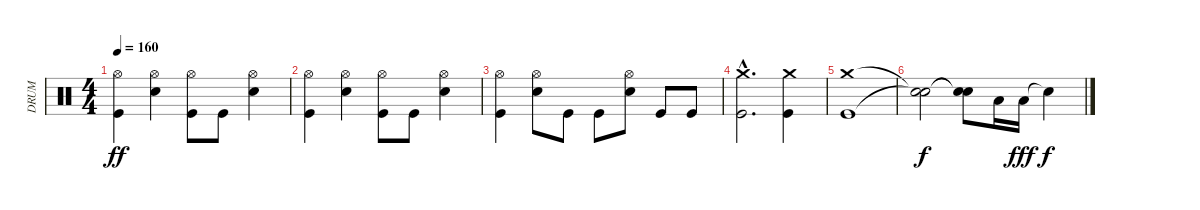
\track ("DRUM" "DRUM") {instrument percussion}
\staff {score}
\articulation defaults
\ts (4 4)
\tempo 160
\clef neutral
\ks c
("Hi-Hat (open)" "Kick (hit)").4{dy ff} ("Hi-Hat (open)" "Snare (hit) 2").4 ("Hi-Hat (open)" "Kick (hit)").8 "Kick (hit)".8 ("Hi-Hat (open)" "Snare (hit) 2").4 |
("Hi-Hat (open)" "Kick (hit)").4 ("Hi-Hat (open)" "Snare (hit) 2").4 ("Hi-Hat (open)" "Kick (hit)").8 "Kick (hit)".8 ("Hi-Hat (open)" "Snare (hit) 2").4 |
("Hi-Hat (open)" "Kick (hit)").4 ("Hi-Hat (open)" "Snare (hit) 2").8 "Kick (hit)".8 "Kick (hit)".8 ("Hi-Hat (open)" "Snare (hit) 2").8 "Kick (hit)".8 "Kick (hit)".8 |
("Crash medium (hit)"{hac} "Kick (hit)"{hac}).2{d} ("Crash medium (hit)" "Kick (hit)").4 |
("Crash medium (hit)" "Kick (hit)").1 |
("Snare (hit)"{t} "Snare (hit)"{t}).2{dy f} ("Snare (hit)"{t} "Snare (hit)"{t}).8 "Low Floor Tom (hit)".16 "Low Floor Tom (hit)".16{dy fff} "Snare (hit)"{t}.4{dy f}
